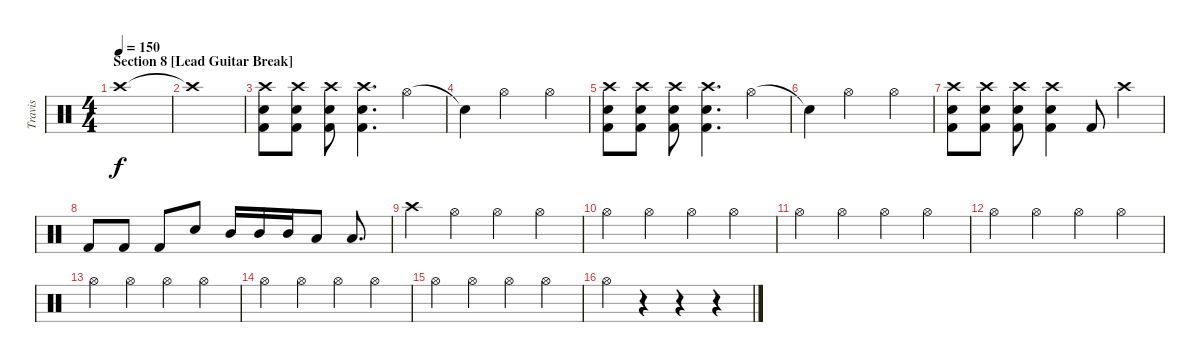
\track ("Travis" "Travis") {instrument percussion}
\staff {score}
\articulation defaults
\ts (4 4)
\section ("" "Section 8 [Lead Guitar Break]")
\tempo 150
\clef neutral
\ks c "Crash high (hit)".1{dy f}
|
"Crash high (hit)"{t}.1 |
("Crash high (hit)" "Snare (hit) 2" "Kick (hit) 2").8 ("Crash high (hit)" "Snare (hit) 2" "Kick (hit) 2").8 ("Crash high (hit)" "Snare (hit) 2" "Kick (hit) 2").8 ("Crash high (hit)" "Snare (hit) 2" "Kick (hit) 2").4{d} "Hi-Hat (open)".4 |
"Snare (hit)"{t}.4 "Hi-Hat (open)".2 "Hi-Hat (open)".4 |
("Crash high (hit)" "Snare (hit) 2" "Kick (hit) 2").8 ("Crash high (hit)" "Snare (hit) 2" "Kick (hit) 2").8 ("Crash high (hit)" "Snare (hit) 2" "Kick (hit) 2").8 ("Crash high (hit)" "Snare (hit) 2" "Kick (hit) 2").4{d} "Hi-Hat (open)".4 |
"Snare (hit)"{t}.4 "Hi-Hat (open)".2 "Hi-Hat (open)".4 |
("Crash high (hit)" "Snare (hit) 2" "Kick (hit) 2").8 ("Crash high (hit)" "Snare (hit) 2" "Kick (hit) 2").8 ("Crash high (hit)" "Snare (hit) 2" "Kick (hit) 2").8 ("Crash high (hit)" "Snare (hit) 2" "Kick (hit) 2").4 "Kick (hit) 2".8 "Crash high (hit)".4 |
"Kick (hit) 2".8 "Kick (hit) 2".8 "Kick (hit) 2".8 "Snare (hit) 2".8 "Mid Tom (hit)".16 "Mid Tom (hit)".16 "Mid Tom (hit)".16 "Low Tom (hit)".8 "Low Tom (hit)".8{d} |
"Crash high (hit)".4 "Hi-Hat (open)".4 "Hi-Hat (open)".4 "Hi-Hat (open)".4 |
"Hi-Hat (open)".4 "Hi-Hat (open)".4 "Hi-Hat (open)".4 "Hi-Hat (open)".4 |
"Hi-Hat (open)".4 "Hi-Hat (open)".4 "Hi-Hat (open)".4 "Hi-Hat (open)".4 |
"Hi-Hat (open)".4 "Hi-Hat (open)".4 "Hi-Hat (open)".4 "Hi-Hat (open)".4 |
"Hi-Hat (open)".4 "Hi-Hat (open)".4 "Hi-Hat (open)".4 "Hi-Hat (open)".4 |
"Hi-Hat (open)".4 "Hi-Hat (open)".4 "Hi-Hat (open)".4 "Hi-Hat (open)".4 |
"Hi-Hat (open)".4 "Hi-Hat (open)".4 "Hi-Hat (open)".4 "Hi-Hat (open)".4 |
"Hi-Hat (open)".4 r.4 r.4 r.4
